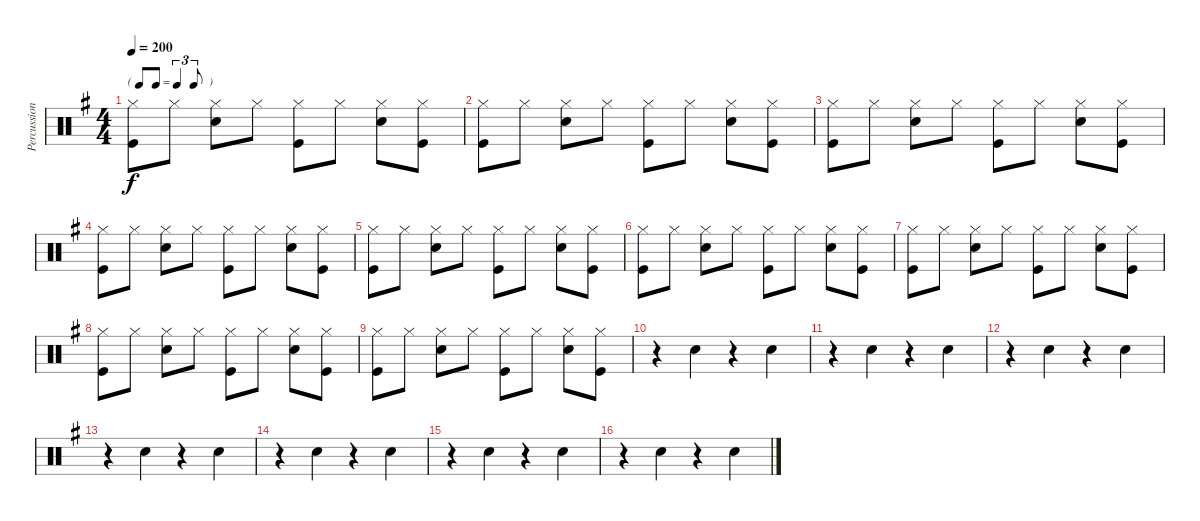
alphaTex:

\track ("Percussion" "Percussion") {instrument percussion}
\staff {score}
\articulation defaults
\ts (4 4)
\tf triplet8th
\tempo 200
\clef neutral
\ks g
("Hi-Hat (closed)" "Kick (hit)").8{dy f} "Hi-Hat (closed)".8 ("Hi-Hat (closed)" "Snare (hit) 2").8 "Hi-Hat (closed)".8 ("Hi-Hat (closed)" "Kick (hit)").8 "Hi-Hat (closed)".8 ("Hi-Hat (closed)" "Snare (hit) 2").8 ("Hi-Hat (closed)" "Kick (hit)").8 |
("Hi-Hat (closed)" "Kick (hit)").8 "Hi-Hat (closed)".8 ("Hi-Hat (closed)" "Snare (hit) 2").8 "Hi-Hat (closed)".8 ("Hi-Hat (closed)" "Kick (hit)").8 "Hi-Hat (closed)".8 ("Hi-Hat (closed)" "Snare (hit) 2").8 ("Hi-Hat (closed)" "Kick (hit)").8 |
("Hi-Hat (closed)" "Kick (hit)").8 "Hi-Hat (closed)".8 ("Hi-Hat (closed)" "Snare (hit) 2").8 "Hi-Hat (closed)".8 ("Hi-Hat (closed)" "Kick (hit)").8 "Hi-Hat (closed)".8 ("Hi-Hat (closed)" "Snare (hit) 2").8 ("Hi-Hat (closed)" "Kick (hit)").8 |
("Hi-Hat (closed)" "Kick (hit)").8 "Hi-Hat (closed)".8 ("Hi-Hat (closed)" "Snare (hit) 2").8 "Hi-Hat (closed)".8 ("Hi-Hat (closed)" "Kick (hit)").8 "Hi-Hat (closed)".8 ("Hi-Hat (closed)" "Snare (hit) 2").8 ("Hi-Hat (closed)" "Kick (hit)").8 |
("Hi-Hat (closed)" "Kick (hit)").8 "Hi-Hat (closed)".8 ("Hi-Hat (closed)" "Snare (hit) 2").8 "Hi-Hat (closed)".8 ("Hi-Hat (closed)" "Kick (hit)").8 "Hi-Hat (closed)".8 ("Hi-Hat (closed)" "Snare (hit) 2").8 ("Hi-Hat (closed)" "Kick (hit)").8 |
("Hi-Hat (closed)" "Kick (hit)").8 "Hi-Hat (closed)".8 ("Hi-Hat (closed)" "Snare (hit) 2").8 "Hi-Hat (closed)".8 ("Hi-Hat (closed)" "Kick (hit)").8 "Hi-Hat (closed)".8 ("Hi-Hat (closed)" "Snare (hit) 2").8 ("Hi-Hat (closed)" "Kick (hit)").8 |
("Hi-Hat (closed)" "Kick (hit)").8 "Hi-Hat (closed)".8 ("Hi-Hat (closed)" "Snare (hit) 2").8 "Hi-Hat (closed)".8 ("Hi-Hat (closed)" "Kick (hit)").8 "Hi-Hat (closed)".8 ("Hi-Hat (closed)" "Snare (hit) 2").8 ("Hi-Hat (closed)" "Kick (hit)").8 |
("Hi-Hat (closed)" "Kick (hit)").8 "Hi-Hat (closed)".8 ("Hi-Hat (closed)" "Snare (hit) 2").8 "Hi-Hat (closed)".8 ("Hi-Hat (closed)" "Kick (hit)").8 "Hi-Hat (closed)".8 ("Hi-Hat (closed)" "Snare (hit) 2").8 ("Hi-Hat (closed)" "Kick (hit)").8 |
("Hi-Hat (closed)" "Kick (hit)").8 "Hi-Hat (closed)".8 ("Hi-Hat (closed)" "Snare (hit) 2").8 "Hi-Hat (closed)".8 ("Hi-Hat (closed)" "Kick (hit)").8 "Hi-Hat (closed)".8 ("Hi-Hat (closed)" "Snare (hit) 2").8 ("Hi-Hat (closed)" "Kick (hit)").8 |
r.4 "Hand Clap (hit)".4 r.4 "Hand Clap (hit)".4 |
r.4 "Hand Clap (hit)".4 r.4 "Hand Clap (hit)".4 |
r.4 "Hand Clap (hit)".4 r.4 "Hand Clap (hit)".4 |
r.4 "Hand Clap (hit)".4 r.4 "Hand Clap (hit)".4 |
r.4 "Hand Clap (hit)".4 r.4 "Hand Clap (hit)".4 |
r.4 "Hand Clap (hit)".4 r.4 "Hand Clap (hit)".4 |
r.4 "Hand Clap (hit)".4 r.4 "Hand Clap (hit)".4
